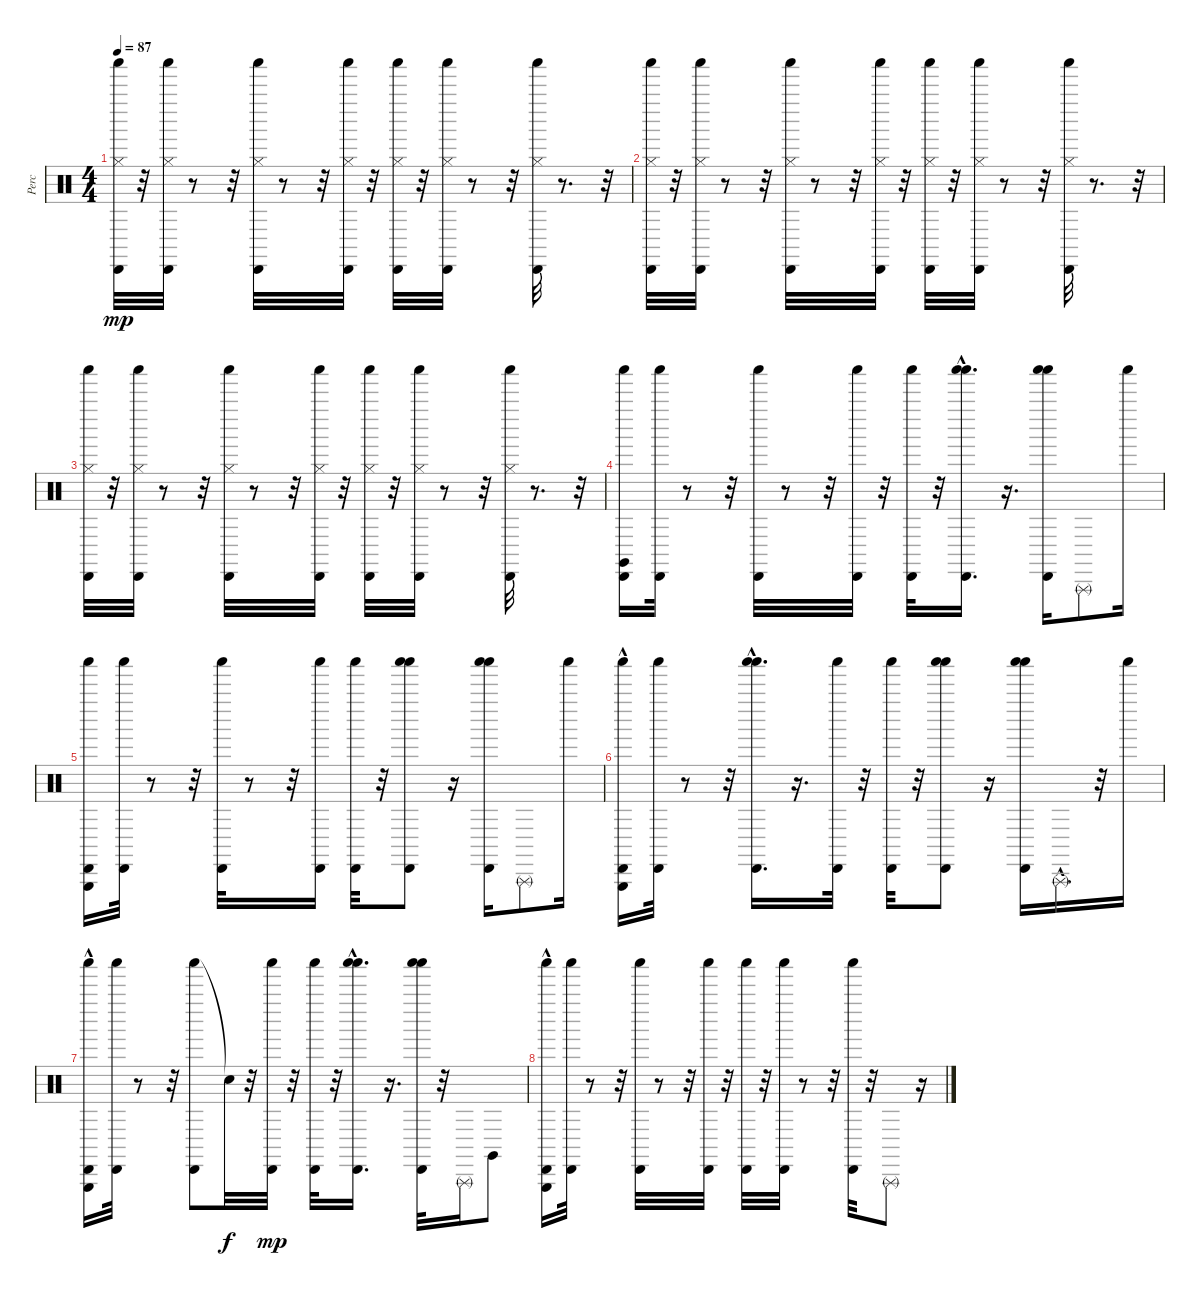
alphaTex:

\track ("Perc" "Perc") {instrument percussion}
\staff {score}
\articulation defaults
\ts (4 4)
\tempo 87
\clef neutral
\ks c
("Hi-Hat (closed)" "Cabasa (hit)" "Shaker (hit)").32{dy mp} r.32 ("Hi-Hat (closed)" "Shaker (hit)" "Cabasa (hit)").32 r.8 r.32 ("Hi-Hat (closed)" "Cabasa (hit)" "Shaker (hit)").32 r.8 r.32 ("Hi-Hat (closed)" "Cabasa (hit)" "Shaker (hit)").32 r.32 ("Hi-Hat (closed)" "Shaker (hit)" "Cabasa (hit)").32 r.32 ("Hi-Hat (closed)" "Shaker (hit)" "Cabasa (hit)").32 r.8 r.32 ("Hi-Hat (closed)" "Shaker (hit)" "Cabasa (hit)").32 r.8{d} r.32 |
("Hi-Hat (closed)" "Cabasa (hit)" "Shaker (hit)").32 r.32 ("Hi-Hat (closed)" "Shaker (hit)" "Cabasa (hit)").32 r.8 r.32 ("Hi-Hat (closed)" "Shaker (hit)" "Cabasa (hit)").32 r.8 r.32 ("Hi-Hat (closed)" "Shaker (hit)" "Cabasa (hit)").32 r.32 ("Hi-Hat (closed)" "Shaker (hit)" "Cabasa (hit)").32 r.32 ("Hi-Hat (closed)" "Shaker (hit)" "Cabasa (hit)").32 r.8 r.32 ("Hi-Hat (closed)" "Shaker (hit)" "Cabasa (hit)").32 r.8{d} r.32 |
("Hi-Hat (closed)" "Cabasa (hit)" "Shaker (hit)").32 r.32 ("Hi-Hat (closed)" "Shaker (hit)" "Cabasa (hit)").32 r.8 r.32 ("Hi-Hat (closed)" "Cabasa (hit)" "Shaker (hit)").32 r.8 r.32 ("Hi-Hat (closed)" "Cabasa (hit)" "Shaker (hit)").32 r.32 ("Hi-Hat (closed)" "Shaker (hit)" "Cabasa (hit)").32 r.32 ("Hi-Hat (closed)" "Shaker (hit)" "Cabasa (hit)").32 r.8 r.32 ("Hi-Hat (closed)" "Shaker (hit)" "Cabasa (hit)").32 r.8{d} r.32 |
("Cabasa (hit)" "Shaker (hit)" "Claves (hit)").16 ("Shaker (hit)" "Cabasa (hit)").32 r.8 r.32 ("Cabasa (hit)" "Shaker (hit)").32 r.8 r.32 ("Cabasa (hit)" "Shaker (hit)").32 r.32 ("Shaker (hit)" "Cabasa (hit)").32 r.32 ("Shaker (hit)"{hac} "Cabasa (hit)" "Shaker (hit)"{hac}).16{d} r.16{d} ("Shaker (hit)" "Cabasa (hit)" "Shaker (hit)").16 "Triangle (rnute)".8 "Shaker (hit)".16 |
("Cabasa (hit)" "Shaker (hit)" "Triangle (hit)").16 ("Shaker (hit)" "Cabasa (hit)").32 r.8 r.32 ("Shaker (hit)" "Cabasa (hit)").32 r.8 r.32 ("Shaker (hit)" "Cabasa (hit)").16 ("Shaker (hit)" "Cabasa (hit)").32 r.32 ("Shaker (hit)" "Cabasa (hit)" "Shaker (hit)").8 r.16 ("Shaker (hit)" "Cabasa (hit)" "Shaker (hit)").16 "Triangle (rnute)".8 "Shaker (hit)".16 |
("Cabasa (hit)" "Shaker (hit)" "Triangle (hit)"{hac}).16 ("Shaker (hit)" "Cabasa (hit)").32 r.8 r.32 ("Cabasa (hit)" "Shaker (hit)"{hac} "Shaker (hit)"{hac}).16{d} r.16{d} ("Cabasa (hit)" "Shaker (hit)").32 r.32 ("Shaker (hit)" "Cabasa (hit)").32 r.32 ("Shaker (hit)" "Cabasa (hit)" "Shaker (hit)").8 r.16 ("Shaker (hit)" "Cabasa (hit)" "Shaker (hit)").16 "Triangle (rnute)"{hac}.16{d} r.32 "Shaker (hit)".16 |
("Cabasa (hit)" "Shaker (hit)" "Triangle (hit)"{hac}).16 ("Shaker (hit)" "Cabasa (hit)").32 r.8 r.32 ("Shaker (hit)" "Cabasa (hit)").8 "Snare (hit)"{t}.32{dy f} r.32 ("Shaker (hit)" "Cabasa (hit)").32{dy mp} r.32 ("Shaker (hit)" "Cabasa (hit)").32 r.32 ("Shaker (hit)"{hac} "Cabasa (hit)" "Shaker (hit)"{hac}).16{d} r.16{d} ("Shaker (hit)" "Cabasa (hit)" "Shaker (hit)").32 r.32 "Triangle (rnute)".16 "Claves (hit)".8 |
("Cabasa (hit)" "Shaker (hit)" "Triangle (hit)"{hac}).16 ("Shaker (hit)" "Cabasa (hit)").32 r.8 r.32 ("Cabasa (hit)" "Shaker (hit)").32 r.8 r.32 ("Cabasa (hit)" "Shaker (hit)").32 r.32 ("Shaker (hit)" "Cabasa (hit)").32 r.32 ("Shaker (hit)" "Cabasa (hit)").32 r.8 r.32 ("Shaker (hit)" "Cabasa (hit)").32 r.32 "Triangle (rnute)".8 r.16
